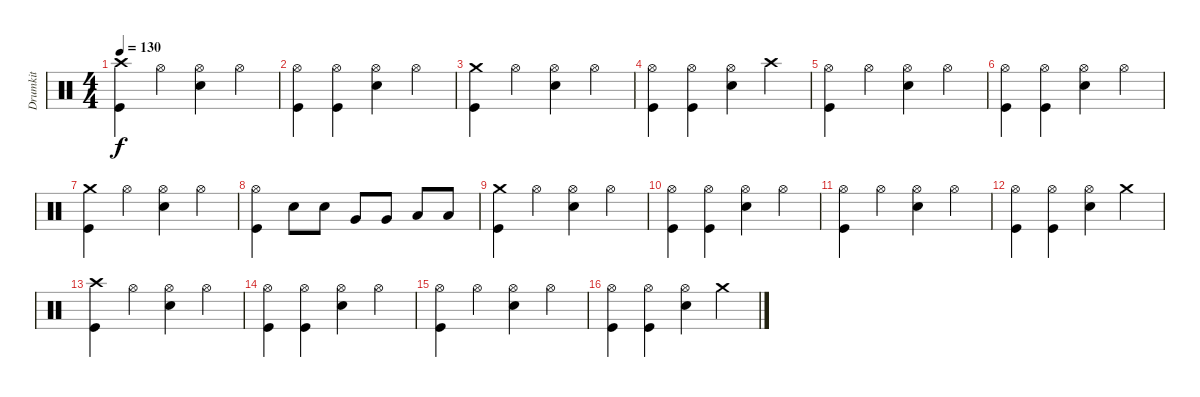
\track ("Drumkit" "Drumkit") {instrument percussion}
\staff {score}
\articulation defaults
\ts (4 4)
\tempo 130
\clef neutral
\ks c
("Crash high (hit)" "Kick (hit)").4{dy f} "Hi-Hat (open)".4 ("Hi-Hat (open)" "Snare (hit) 2").4 "Hi-Hat (open)".4 |
("Hi-Hat (open)" "Kick (hit)").4 ("Hi-Hat (open)" "Kick (hit)").4 ("Hi-Hat (open)" "Snare (hit) 2").4 "Hi-Hat (open)".4 |
("Crash medium (hit)" "Kick (hit)").4 "Hi-Hat (open)".4 ("Hi-Hat (open)" "Snare (hit) 2").4 "Hi-Hat (open)".4 |
("Hi-Hat (open)" "Kick (hit)").4 ("Hi-Hat (open)" "Kick (hit)").4 ("Hi-Hat (open)" "Snare (hit) 2").4 "Crash high (hit)".4 |
("Hi-Hat (open)" "Kick (hit)").4 "Hi-Hat (open)".4 ("Hi-Hat (open)" "Snare (hit) 2").4 "Hi-Hat (open)".4 |
("Hi-Hat (open)" "Kick (hit)").4 ("Hi-Hat (open)" "Kick (hit)").4 ("Hi-Hat (open)" "Snare (hit) 2").4 "Hi-Hat (open)".4 |
("Crash medium (hit)" "Kick (hit)").4 "Hi-Hat (open)".4 ("Hi-Hat (open)" "Snare (hit) 2").4 "Hi-Hat (open)".4 |
("Hi-Hat (open)" "Kick (hit)").4 "Snare (hit) 2".8 "Snare (hit) 2".8 "Very Low Tom (hit)".8 "Very Low Tom (hit)".8 "Low Tom (hit)".8 "Low Tom (hit)".8 |
("Crash medium (hit)" "Kick (hit)").4 "Hi-Hat (open)".4 ("Hi-Hat (open)" "Snare (hit) 2").4 "Hi-Hat (open)".4 |
("Hi-Hat (open)" "Kick (hit)").4 ("Hi-Hat (open)" "Kick (hit)").4 ("Hi-Hat (open)" "Snare (hit) 2").4 "Hi-Hat (open)".4 |
("Hi-Hat (open)" "Kick (hit)").4 "Hi-Hat (open)".4 ("Hi-Hat (open)" "Snare (hit) 2").4 "Hi-Hat (open)".4 |
("Hi-Hat (open)" "Kick (hit)").4 ("Hi-Hat (open)" "Kick (hit)").4 ("Hi-Hat (open)" "Snare (hit) 2").4 "Crash medium (hit)".4 |
("Crash high (hit)" "Kick (hit)").4 "Hi-Hat (open)".4 ("Hi-Hat (open)" "Snare (hit) 2").4 "Hi-Hat (open)".4 |
("Hi-Hat (open)" "Kick (hit)").4 ("Hi-Hat (open)" "Kick (hit)").4 ("Hi-Hat (open)" "Snare (hit) 2").4 "Hi-Hat (open)".4 |
("Hi-Hat (open)" "Kick (hit)").4 "Hi-Hat (open)".4 ("Hi-Hat (open)" "Snare (hit) 2").4 "Hi-Hat (open)".4 |
("Hi-Hat (open)" "Kick (hit)").4 ("Hi-Hat (open)" "Kick (hit)").4 ("Hi-Hat (open)" "Snare (hit) 2").4 "Crash medium (hit)".4
